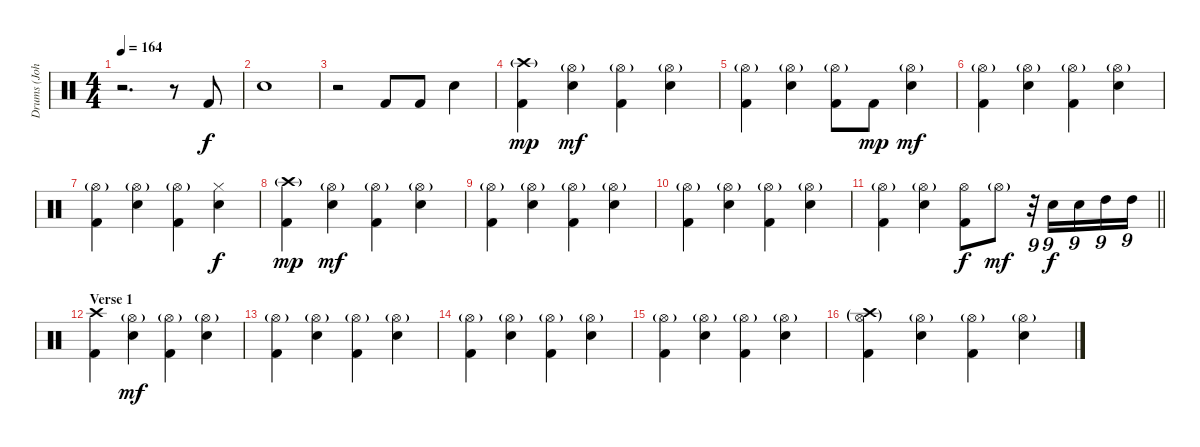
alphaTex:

\track ("Drums (John O'Reilly)" "Drums (Joh") {instrument percussion}
\staff {score}
\articulation defaults
\ts (4 4)
\tempo 164
\clef neutral
\ks c
r.2{d dy f} r.8 "Kick (hit) 2".8 |
"Electric Snare (hit)".1 |
r.2 "Kick (hit) 2".8 "Kick (hit) 2".8 "Electric Snare (hit)".4 |
("Crash high (hit)"{g} "Kick (hit) 2").4{dy mp} ("Hi-Hat (open)"{g} "Electric Snare (hit)").4{dy mf} ("Hi-Hat (open)"{g} "Kick (hit) 2").4 ("Hi-Hat (open)"{g} "Electric Snare (hit)").4 |
("Hi-Hat (open)"{g} "Kick (hit) 2").4 ("Hi-Hat (open)"{g} "Electric Snare (hit)").4 ("Hi-Hat (open)"{g} "Kick (hit) 2").8 "Kick (hit) 2".8{dy mp} ("Hi-Hat (open)"{g} "Electric Snare (hit)").4{dy mf} |
("Hi-Hat (open)"{g} "Kick (hit) 2").4 ("Hi-Hat (open)"{g} "Electric Snare (hit)").4 ("Hi-Hat (open)"{g} "Kick (hit) 2").4 ("Hi-Hat (open)"{g} "Electric Snare (hit)").4 |
("Hi-Hat (open)"{g} "Kick (hit) 2").4 ("Hi-Hat (open)"{g} "Electric Snare (hit)").4 ("Hi-Hat (open)"{g} "Kick (hit) 2").4 ("Hi-Hat (closed)" "Electric Snare (hit)").4{dy f} |
("Crash high (hit)"{g} "Kick (hit) 2").4{dy mp} ("Hi-Hat (open)"{g} "Electric Snare (hit)").4{dy mf} ("Hi-Hat (open)"{g} "Kick (hit) 2").4 ("Hi-Hat (open)"{g} "Electric Snare (hit)").4 |
("Hi-Hat (open)"{g} "Kick (hit) 2").4 ("Hi-Hat (open)"{g} "Electric Snare (hit)").4 ("Hi-Hat (open)"{g} "Kick (hit) 2").4 ("Hi-Hat (open)"{g} "Electric Snare (hit)").4 |
("Hi-Hat (open)"{g} "Kick (hit) 2").4 ("Hi-Hat (open)"{g} "Electric Snare (hit)").4 ("Hi-Hat (open)"{g} "Kick (hit) 2").4 ("Hi-Hat (open)"{g} "Electric Snare (hit)").4 |
\barLineRight lightlight
("Hi-Hat (open)"{g} "Kick (hit) 2").4 ("Hi-Hat (open)"{g} "Electric Snare (hit)").4 ("Hi-Hat (open)" "Kick (hit) 2").8{dy f} "Hi-Hat (open)"{g}.8{dy mf} r.32{tu (9 8)} "Electric Snare (hit)".16{tu (9 8) dy f} "Electric Snare (hit)".16{tu (9 8)} "High Tom (hit)".16{tu (9 8)} "High Tom (hit)".16{tu (9 8)} |
\section ("" "Verse 1")
("Crash high (hit)" "Kick (hit) 2").4 ("Hi-Hat (open)"{g} "Electric Snare (hit)").4{dy mf} ("Hi-Hat (open)"{g} "Kick (hit) 2").4 ("Hi-Hat (open)"{g} "Electric Snare (hit)").4 |
("Hi-Hat (open)"{g} "Kick (hit) 2").4 ("Hi-Hat (open)"{g} "Electric Snare (hit)").4 ("Hi-Hat (open)"{g} "Kick (hit) 2").4 ("Hi-Hat (open)"{g} "Electric Snare (hit)").4 |
("Hi-Hat (open)"{g} "Kick (hit) 2").4 ("Hi-Hat (open)"{g} "Electric Snare (hit)").4 ("Hi-Hat (open)"{g} "Kick (hit) 2").4 ("Hi-Hat (open)"{g} "Electric Snare (hit)").4 |
("Hi-Hat (open)"{g} "Kick (hit) 2").4 ("Hi-Hat (open)"{g} "Electric Snare (hit)").4 ("Hi-Hat (open)"{g} "Kick (hit) 2").4 ("Hi-Hat (open)"{g} "Electric Snare (hit)").4 |
("Crash high (hit)"{g} "Hi-Hat (open)"{g} "Kick (hit) 2").4 ("Hi-Hat (open)"{g} "Electric Snare (hit)").4 ("Hi-Hat (open)"{g} "Kick (hit) 2").4 ("Hi-Hat (open)"{g} "Electric Snare (hit)").4
